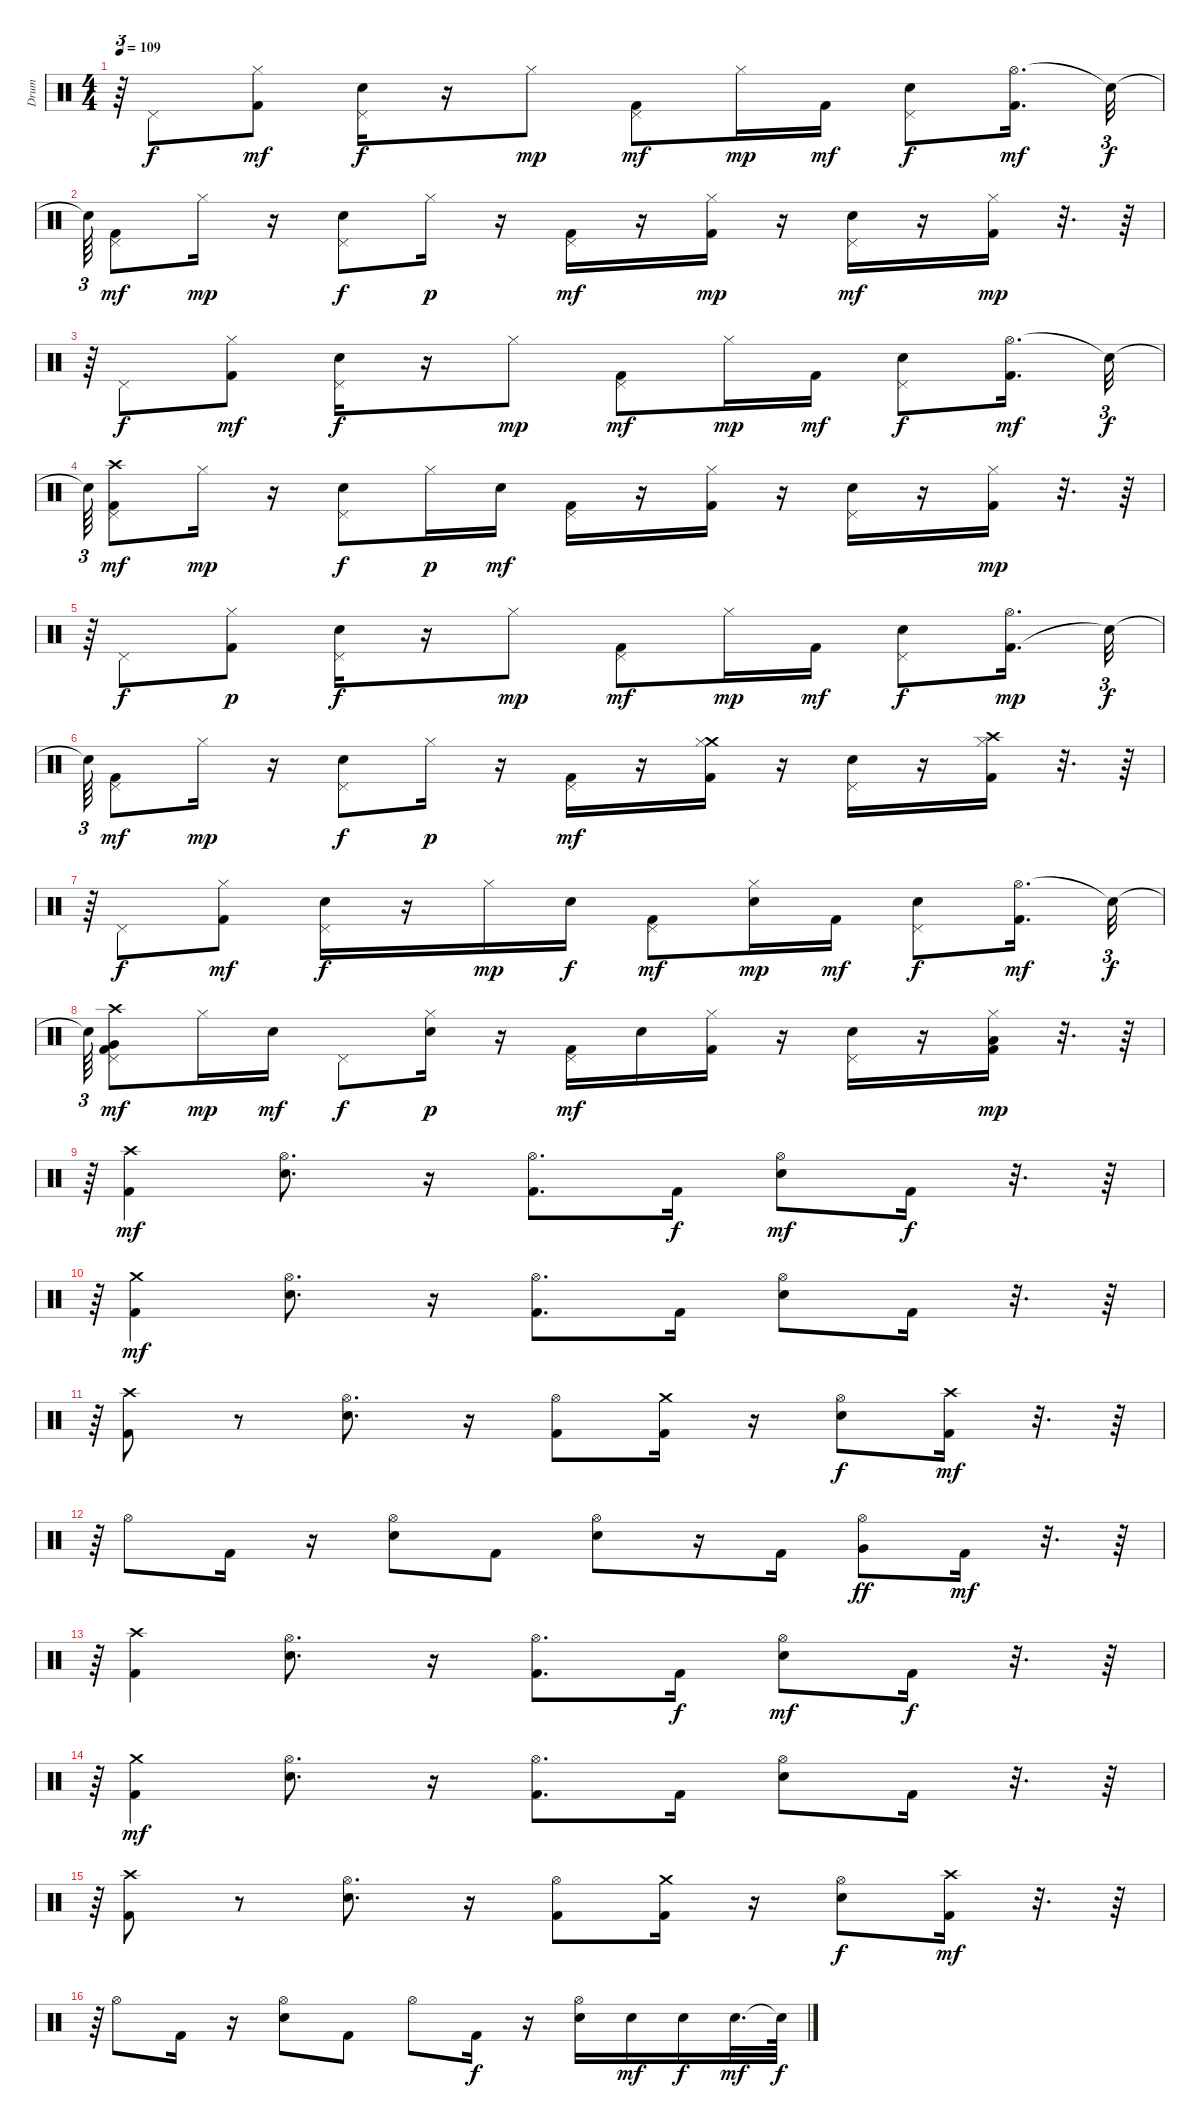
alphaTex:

\track ("Drum" "Drum") {instrument percussion}
\staff {score}
\articulation defaults
\ts (4 4)
\tempo 109
\clef neutral
\ks c
r.64{tu (3 2) dy mp} "Pedal Hi-Hat (hit)".8{dy f} ("Hi-Hat (closed)" "Kick (hit) 2").8{dy mf} ("Pedal Hi-Hat (hit)" "Electric Snare (hit)").16{dy f} r.16 "Hi-Hat (closed)".8{dy mp} ("Pedal Hi-Hat (hit)" "Kick (hit) 2").8{dy mf} "Hi-Hat (closed)".16{dy mp} "Kick (hit) 2".16{dy mf} ("Pedal Hi-Hat (hit)" "Electric Snare (hit)").8{dy f} ("Hi-Hat (open)" "Kick (hit) 2").16{d dy mf} "Snare (hit)"{t}.32{tu (3 2) dy f} |
"Snare (hit)"{t}.64{tu (3 2)} ("Pedal Hi-Hat (hit)" "Kick (hit) 2").8{dy mf} "Hi-Hat (closed)".16{dy mp} r.16 ("Electric Snare (hit)" "Pedal Hi-Hat (hit)").8{dy f} "Hi-Hat (closed)".16{dy p} r.16 ("Kick (hit) 2" "Pedal Hi-Hat (hit)").16{dy mf} r.16 ("Kick (hit) 2" "Hi-Hat (closed)").16{dy mp} r.16 ("Pedal Hi-Hat (hit)" "Electric Snare (hit)").16{dy mf} r.16 ("Kick (hit) 2" "Hi-Hat (closed)").16{dy mp} r.32{d} r.64 |
r.64{tu (3 2)} "Pedal Hi-Hat (hit)".8{dy f} ("Hi-Hat (closed)" "Kick (hit) 2").8{dy mf} ("Electric Snare (hit)" "Pedal Hi-Hat (hit)").16{dy f} r.16 "Hi-Hat (closed)".8{dy mp} ("Pedal Hi-Hat (hit)" "Kick (hit) 2").8{dy mf} "Hi-Hat (closed)".16{dy mp} "Kick (hit) 2".16{dy mf} ("Pedal Hi-Hat (hit)" "Electric Snare (hit)").8{dy f} ("Hi-Hat (open)" "Kick (hit) 2").16{d dy mf} "Snare (hit)"{t}.32{tu (3 2) dy f} |
"Snare (hit)"{t}.64{tu (3 2)} ("Crash high (hit)" "Pedal Hi-Hat (hit)" "Kick (hit) 2").8{dy mf} "Hi-Hat (closed)".16{dy mp} r.16 ("Pedal Hi-Hat (hit)" "Electric Snare (hit)").8{dy f} "Hi-Hat (closed)".16{dy p} "Electric Snare (hit)".16{dy mf} ("Kick (hit) 2" "Pedal Hi-Hat (hit)").16 r.16 ("Hi-Hat (closed)" "Kick (hit) 2").16 r.16 ("Electric Snare (hit)" "Pedal Hi-Hat (hit)").16 r.16 ("Kick (hit) 2" "Hi-Hat (closed)").16{dy mp} r.32{d} r.64 |
r.64{tu (3 2)} "Pedal Hi-Hat (hit)".8{dy f} ("Kick (hit) 2" "Hi-Hat (closed)").8{dy p} ("Electric Snare (hit)" "Pedal Hi-Hat (hit)").16{dy f} r.16 "Hi-Hat (closed)".8{dy mp} ("Kick (hit) 2" "Pedal Hi-Hat (hit)").8{dy mf} "Hi-Hat (closed)".16{dy mp} "Kick (hit) 2".16{dy mf} ("Pedal Hi-Hat (hit)" "Electric Snare (hit)").8{dy f} ("Kick (hit) 2" "Hi-Hat (open)").16{d dy mp} "Snare (hit)"{t}.32{tu (3 2) dy f} |
"Snare (hit)"{t}.64{tu (3 2)} ("Pedal Hi-Hat (hit)" "Kick (hit) 2").8{dy mf} "Hi-Hat (closed)".16{dy mp} r.16 ("Pedal Hi-Hat (hit)" "Electric Snare (hit)").8{dy f} "Hi-Hat (closed)".16{dy p} r.16 ("Kick (hit) 2" "Pedal Hi-Hat (hit)").16{dy mf} r.16 ("Crash medium (hit)" "Hi-Hat (closed)" "Kick (hit) 2").16 r.16 ("Electric Snare (hit)" "Pedal Hi-Hat (hit)").16 r.16 ("Hi-Hat (closed)" "Kick (hit) 2" "Crash high (hit)").16 r.32{d} r.64 |
r.64{tu (3 2)} "Pedal Hi-Hat (hit)".8{dy f} ("Hi-Hat (closed)" "Kick (hit) 2").8{dy mf} ("Electric Snare (hit)" "Pedal Hi-Hat (hit)").16{dy f} r.16 "Hi-Hat (closed)".16{dy mp} "Electric Snare (hit)".16{dy f} ("Pedal Hi-Hat (hit)" "Kick (hit) 2").8{dy mf} ("Electric Snare (hit)" "Hi-Hat (closed)").16{dy mp} "Kick (hit) 2".16{dy mf} ("Electric Snare (hit)" "Pedal Hi-Hat (hit)").8{dy f} ("Hi-Hat (open)" "Kick (hit) 2").16{d dy mf} "Snare (hit)"{t}.32{tu (3 2) dy f} |
"Snare (hit)"{t}.64{tu (3 2)} ("Kick (hit) 2" "Very Low Tom (hit)" "Pedal Hi-Hat (hit)" "Crash high (hit)").8{dy mf} "Hi-Hat (closed)".16{dy mp} "Electric Snare (hit)".16{dy mf} "Pedal Hi-Hat (hit)".8{dy f} ("Electric Snare (hit)" "Hi-Hat (closed)").16{dy p} r.16 ("Kick (hit) 2" "Pedal Hi-Hat (hit)").16{dy mf} "Electric Snare (hit)".16 ("Hi-Hat (closed)" "Kick (hit) 2").16 r.16 ("Electric Snare (hit)" "Pedal Hi-Hat (hit)").16 r.16 ("Low Tom (hit)" "Hi-Hat (closed)" "Kick (hit) 2").16{dy mp} r.32{d} r.64 |
r.64{tu (3 2)} ("Crash high (hit)" "Kick (hit) 2").4{dy mf} ("Electric Snare (hit)" "Hi-Hat (open)").8{d} r.16 ("Kick (hit) 2" "Hi-Hat (open)").8{d} "Kick (hit) 2".16{dy f} ("Hi-Hat (open)" "Electric Snare (hit)").8{dy mf} "Kick (hit) 2".16{dy f} r.32{d} r.64 |
r.64{tu (3 2)} ("Crash medium (hit)" "Kick (hit) 2").4{dy mf} ("Electric Snare (hit)" "Hi-Hat (open)").8{d} r.16 ("Hi-Hat (open)" "Kick (hit) 2").8{d} "Kick (hit) 2".16 ("Electric Snare (hit)" "Hi-Hat (open)").8 "Kick (hit) 2".16 r.32{d} r.64 |
r.64{tu (3 2)} ("Crash high (hit)" "Kick (hit) 2").8 r.8 ("Hi-Hat (open)" "Electric Snare (hit)").8{d} r.16 ("Hi-Hat (open)" "Kick (hit) 2").8 ("Kick (hit) 2" "Crash medium (hit)").16 r.16 ("Hi-Hat (open)" "Electric Snare (hit)").8{dy f} ("Crash high (hit)" "Kick (hit) 2").16{dy mf} r.32{d} r.64 |
r.64{tu (3 2)} "Hi-Hat (open)".8 "Kick (hit) 2".16 r.16 ("Electric Snare (hit)" "Hi-Hat (open)").8 "Kick (hit) 2".8 ("Hi-Hat (open)" "Electric Snare (hit)").8 r.16 "Kick (hit) 2".16 ("Hi-Hat (open)" "Very Low Tom (hit)").8{dy ff} "Kick (hit) 2".16{dy mf} r.32{d} r.64 |
r.64{tu (3 2)} ("Kick (hit) 2" "Crash high (hit)").4 ("Electric Snare (hit)" "Hi-Hat (open)").8{d} r.16 ("Kick (hit) 2" "Hi-Hat (open)").8{d} "Kick (hit) 2".16{dy f} ("Hi-Hat (open)" "Electric Snare (hit)").8{dy mf} "Kick (hit) 2".16{dy f} r.32{d} r.64 |
r.64{tu (3 2)} ("Crash medium (hit)" "Kick (hit) 2").4{dy mf} ("Hi-Hat (open)" "Electric Snare (hit)").8{d} r.16 ("Hi-Hat (open)" "Kick (hit) 2").8{d} "Kick (hit) 2".16 ("Hi-Hat (open)" "Electric Snare (hit)").8 "Kick (hit) 2".16 r.32{d} r.64 |
r.64{tu (3 2)} ("Kick (hit) 2" "Crash high (hit)").8 r.8 ("Hi-Hat (open)" "Electric Snare (hit)").8{d} r.16 ("Kick (hit) 2" "Hi-Hat (open)").8 ("Crash medium (hit)" "Kick (hit) 2").16 r.16 ("Electric Snare (hit)" "Hi-Hat (open)").8{dy f} ("Kick (hit) 2" "Crash high (hit)").16{dy mf} r.32{d} r.64 |
r.64{tu (3 2)} "Hi-Hat (open)".8 "Kick (hit) 2".16 r.16 ("Hi-Hat (open)" "Electric Snare (hit)").8 "Kick (hit) 2".8 "Hi-Hat (open)".8 "Kick (hit) 2".16{dy f} r.16 ("Hi-Hat (open)" "Electric Snare (hit)").16 "Electric Snare (hit)".16{dy mf} "Electric Snare (hit)".16{dy f} "Electric Snare (hit)".32{d dy mf} "Snare (hit)"{t}.64{dy f}
